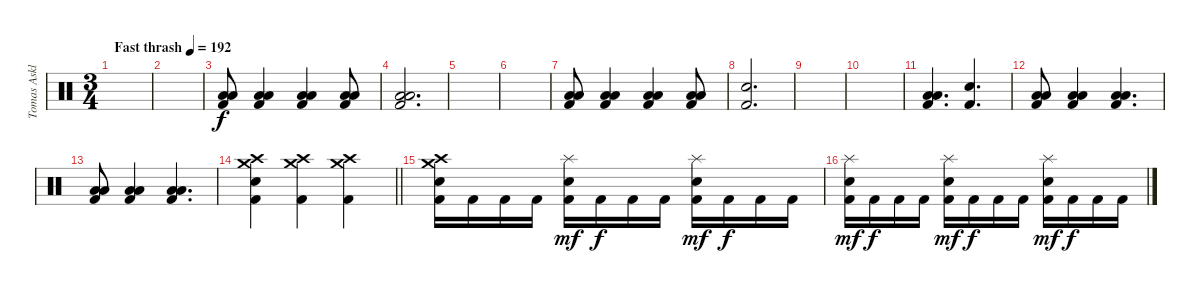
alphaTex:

\track ("Tomas Asklund" "Tomas Askl") {instrument percussion}
\staff {score}
\articulation defaults
\ts (3 4)
\tempo (192 "Fast thrash")
\clef neutral
\ks c
|
|
("Low Floor Tom (hit)" "Low Tom (hit)" "Kick (hit) 2").8 ("Low Floor Tom (hit)" "Low Tom (hit)" "Kick (hit) 2").4 ("Low Floor Tom (hit)" "Low Tom (hit)" "Kick (hit) 2").4 ("Low Floor Tom (hit)" "Low Tom (hit)" "Kick (hit) 2").8 |
("Low Floor Tom (hit)" "Low Tom (hit)" "Kick (hit) 2").2{d} |
|
|
("Low Floor Tom (hit)" "Low Tom (hit)" "Kick (hit) 2").8 ("Low Floor Tom (hit)" "Low Tom (hit)" "Kick (hit) 2").4 ("Low Floor Tom (hit)" "Low Tom (hit)" "Kick (hit) 2").4 ("Low Floor Tom (hit)" "Low Tom (hit)" "Kick (hit) 2").8 |
("Snare (hit) 2" "Kick (hit) 2").2{d} |
|
|
("Low Floor Tom (hit)" "Low Tom (hit)" "Kick (hit) 2").4{d} ("Snare (hit) 2" "Kick (hit) 2").4{d} |
("Low Floor Tom (hit)" "Low Tom (hit)" "Kick (hit) 2").8 ("Low Floor Tom (hit)" "Low Tom (hit)" "Kick (hit) 2").4 ("Low Floor Tom (hit)" "Low Tom (hit)" "Kick (hit) 2").4{d} |
("Low Floor Tom (hit)" "Low Tom (hit)" "Kick (hit) 2").8 ("Low Floor Tom (hit)" "Low Tom (hit)" "Kick (hit) 2").4 ("Low Floor Tom (hit)" "Low Tom (hit)" "Kick (hit) 2").4{d} |
\barLineRight lightlight
("Crash high (hit)" "Crash medium (hit)" "Snare (hit) 2" "Kick (hit) 2").4 ("Crash high (hit)" "Crash medium (hit)" "Kick (hit) 2").4 ("Crash high (hit)" "Crash medium (hit)" "Kick (hit) 2").4 |
("Crash high (hit)" "Crash medium (hit)" "Snare (hit) 2" "Kick (hit) 2").16 "Kick (hit) 2".16 "Kick (hit) 2".16 "Kick (hit) 2".16 ("Splash (hit)" "Snare (hit) 2" "Kick (hit) 2").16{dy mf} "Kick (hit) 2".16{dy f} "Kick (hit) 2".16 "Kick (hit) 2".16 ("Splash (hit)" "Snare (hit) 2" "Kick (hit) 2").16{dy mf} "Kick (hit) 2".16{dy f} "Kick (hit) 2".16 "Kick (hit) 2".16 |
("Splash (hit)" "Snare (hit) 2" "Kick (hit) 2").16{dy mf} "Kick (hit) 2".16{dy f} "Kick (hit) 2".16 "Kick (hit) 2".16 ("Splash (hit)" "Snare (hit) 2" "Kick (hit) 2").16{dy mf} "Kick (hit) 2".16{dy f} "Kick (hit) 2".16 "Kick (hit) 2".16 ("Splash (hit)" "Snare (hit) 2" "Kick (hit) 2").16{dy mf} "Kick (hit) 2".16{dy f} "Kick (hit) 2".16 "Kick (hit) 2".16
